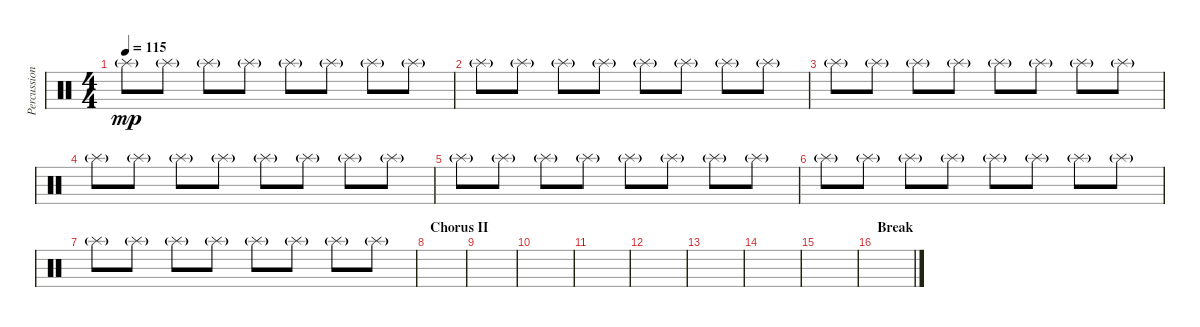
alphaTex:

\track ("Percussion - Splash Cymbal" "Percussion") {instrument percussion}
\staff {score}
\articulation defaults
\ts (4 4)
\tempo 115
\clef neutral
\ks c "Splash (hit)"{g}.8{dy mp} "Splash (hit)"{g}.8 "Splash (hit)"{g}.8 "Splash (hit)"{g}.8 "Splash (hit)"{g}.8 "Splash (hit)"{g}.8 "Splash (hit)"{g}.8 "Splash (hit)"{g}.8
|
"Splash (hit)"{g}.8 "Splash (hit)"{g}.8 "Splash (hit)"{g}.8 "Splash (hit)"{g}.8 "Splash (hit)"{g}.8 "Splash (hit)"{g}.8 "Splash (hit)"{g}.8 "Splash (hit)"{g}.8 |
"Splash (hit)"{g}.8 "Splash (hit)"{g}.8 "Splash (hit)"{g}.8 "Splash (hit)"{g}.8 "Splash (hit)"{g}.8 "Splash (hit)"{g}.8 "Splash (hit)"{g}.8 "Splash (hit)"{g}.8 |
"Splash (hit)"{g}.8 "Splash (hit)"{g}.8 "Splash (hit)"{g}.8 "Splash (hit)"{g}.8 "Splash (hit)"{g}.8 "Splash (hit)"{g}.8 "Splash (hit)"{g}.8 "Splash (hit)"{g}.8 |
"Splash (hit)"{g}.8 "Splash (hit)"{g}.8 "Splash (hit)"{g}.8 "Splash (hit)"{g}.8 "Splash (hit)"{g}.8 "Splash (hit)"{g}.8 "Splash (hit)"{g}.8 "Splash (hit)"{g}.8 |
"Splash (hit)"{g}.8 "Splash (hit)"{g}.8 "Splash (hit)"{g}.8 "Splash (hit)"{g}.8 "Splash (hit)"{g}.8 "Splash (hit)"{g}.8 "Splash (hit)"{g}.8 "Splash (hit)"{g}.8 |
"Splash (hit)"{g}.8 "Splash (hit)"{g}.8 "Splash (hit)"{g}.8 "Splash (hit)"{g}.8 "Splash (hit)"{g}.8 "Splash (hit)"{g}.8 "Splash (hit)"{g}.8 "Splash (hit)"{g}.8 |
\section ("" "Chorus II")
|
|
|
|
|
|
|
|
\section ("" "Break")
